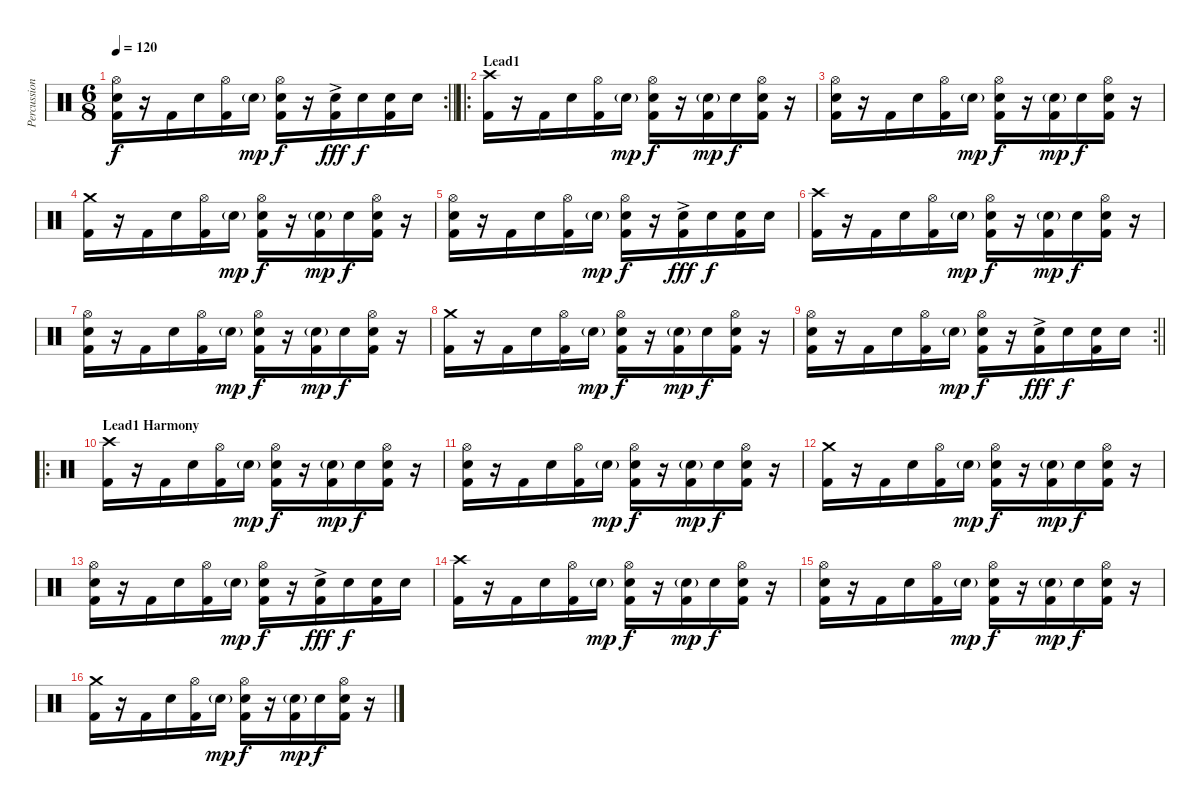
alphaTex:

\track ("Percussion" "Percussion") {instrument percussion}
\staff {score}
\articulation defaults
\rc 2
\ts (6 8)
\tempo 120
\clef neutral
\barLineRight lightlight
\ks c
("Hi-Hat (open)" "Snare (hit) 2" "Kick (hit) 2").16{dy f} r.16 "Kick (hit) 2".16 "Snare (hit) 2".16 ("Hi-Hat (open)" "Kick (hit) 2").16 "Snare (hit) 2"{g}.16{dy mp} ("Hi-Hat (open)" "Snare (hit) 2" "Kick (hit) 2").16{dy f} r.16 ("Snare (hit) 2"{ac} "Kick (hit) 2").16{dy fff} "Snare (hit) 2".16{dy f} ("Snare (hit) 2" "Kick (hit) 2").16 "Snare (hit) 2".16 |
\ro
\section ("" "Lead1")
("Crash high (hit)" "Kick (hit) 2").16 r.16 "Kick (hit) 2".16 "Snare (hit) 2".16 ("Hi-Hat (open)" "Kick (hit) 2").16 "Snare (hit) 2"{g}.16{dy mp} ("Hi-Hat (open)" "Snare (hit) 2" "Kick (hit) 2").16{dy f} r.16 ("Snare (hit) 2"{g} "Kick (hit) 2").16{dy mp} "Snare (hit) 2".16{dy f} ("Hi-Hat (open)" "Snare (hit) 2" "Kick (hit) 2").16 r.16 |
("Hi-Hat (open)" "Snare (hit) 2" "Kick (hit) 2").16 r.16 "Kick (hit) 2".16 "Snare (hit) 2".16 ("Hi-Hat (open)" "Kick (hit) 2").16 "Snare (hit) 2"{g}.16{dy mp} ("Hi-Hat (open)" "Snare (hit) 2" "Kick (hit) 2").16{dy f} r.16 ("Snare (hit) 2"{g} "Kick (hit) 2").16{dy mp} "Snare (hit) 2".16{dy f} ("Hi-Hat (open)" "Snare (hit) 2" "Kick (hit) 2").16 r.16 |
("Crash medium (hit)" "Kick (hit) 2").16 r.16 "Kick (hit) 2".16 "Snare (hit) 2".16 ("Hi-Hat (open)" "Kick (hit) 2").16 "Snare (hit) 2"{g}.16{dy mp} ("Hi-Hat (open)" "Snare (hit) 2" "Kick (hit) 2").16{dy f} r.16 ("Snare (hit) 2"{g} "Kick (hit) 2").16{dy mp} "Snare (hit) 2".16{dy f} ("Hi-Hat (open)" "Snare (hit) 2" "Kick (hit) 2").16 r.16 |
("Hi-Hat (open)" "Snare (hit) 2" "Kick (hit) 2").16 r.16 "Kick (hit) 2".16 "Snare (hit) 2".16 ("Hi-Hat (open)" "Kick (hit) 2").16 "Snare (hit) 2"{g}.16{dy mp} ("Hi-Hat (open)" "Snare (hit) 2" "Kick (hit) 2").16{dy f} r.16 ("Snare (hit) 2"{ac} "Kick (hit) 2").16{dy fff} "Snare (hit) 2".16{dy f} ("Snare (hit) 2" "Kick (hit) 2").16 "Snare (hit) 2".16 |
("Crash high (hit)" "Kick (hit) 2").16 r.16 "Kick (hit) 2".16 "Snare (hit) 2".16 ("Hi-Hat (open)" "Kick (hit) 2").16 "Snare (hit) 2"{g}.16{dy mp} ("Hi-Hat (open)" "Snare (hit) 2" "Kick (hit) 2").16{dy f} r.16 ("Snare (hit) 2"{g} "Kick (hit) 2").16{dy mp} "Snare (hit) 2".16{dy f} ("Hi-Hat (open)" "Snare (hit) 2" "Kick (hit) 2").16 r.16 |
("Hi-Hat (open)" "Snare (hit) 2" "Kick (hit) 2").16 r.16 "Kick (hit) 2".16 "Snare (hit) 2".16 ("Hi-Hat (open)" "Kick (hit) 2").16 "Snare (hit) 2"{g}.16{dy mp} ("Hi-Hat (open)" "Snare (hit) 2" "Kick (hit) 2").16{dy f} r.16 ("Snare (hit) 2"{g} "Kick (hit) 2").16{dy mp} "Snare (hit) 2".16{dy f} ("Hi-Hat (open)" "Snare (hit) 2" "Kick (hit) 2").16 r.16 |
("Crash medium (hit)" "Kick (hit) 2").16 r.16 "Kick (hit) 2".16 "Snare (hit) 2".16 ("Hi-Hat (open)" "Kick (hit) 2").16 "Snare (hit) 2"{g}.16{dy mp} ("Hi-Hat (open)" "Snare (hit) 2" "Kick (hit) 2").16{dy f} r.16 ("Snare (hit) 2"{g} "Kick (hit) 2").16{dy mp} "Snare (hit) 2".16{dy f} ("Hi-Hat (open)" "Snare (hit) 2" "Kick (hit) 2").16 r.16 |
\rc 2
\barLineRight lightlight
("Hi-Hat (open)" "Snare (hit) 2" "Kick (hit) 2").16 r.16 "Kick (hit) 2".16 "Snare (hit) 2".16 ("Hi-Hat (open)" "Kick (hit) 2").16 "Snare (hit) 2"{g}.16{dy mp} ("Hi-Hat (open)" "Snare (hit) 2" "Kick (hit) 2").16{dy f} r.16 ("Snare (hit) 2"{ac} "Kick (hit) 2").16{dy fff} "Snare (hit) 2".16{dy f} ("Snare (hit) 2" "Kick (hit) 2").16 "Snare (hit) 2".16 |
\ro
\section ("" "Lead1 Harmony")
("Crash high (hit)" "Kick (hit) 2").16 r.16 "Kick (hit) 2".16 "Snare (hit) 2".16 ("Hi-Hat (open)" "Kick (hit) 2").16 "Snare (hit) 2"{g}.16{dy mp} ("Hi-Hat (open)" "Snare (hit) 2" "Kick (hit) 2").16{dy f} r.16 ("Snare (hit) 2"{g} "Kick (hit) 2").16{dy mp} "Snare (hit) 2".16{dy f} ("Hi-Hat (open)" "Snare (hit) 2" "Kick (hit) 2").16 r.16 |
("Hi-Hat (open)" "Snare (hit) 2" "Kick (hit) 2").16 r.16 "Kick (hit) 2".16 "Snare (hit) 2".16 ("Hi-Hat (open)" "Kick (hit) 2").16 "Snare (hit) 2"{g}.16{dy mp} ("Hi-Hat (open)" "Snare (hit) 2" "Kick (hit) 2").16{dy f} r.16 ("Snare (hit) 2"{g} "Kick (hit) 2").16{dy mp} "Snare (hit) 2".16{dy f} ("Hi-Hat (open)" "Snare (hit) 2" "Kick (hit) 2").16 r.16 |
("Crash medium (hit)" "Kick (hit) 2").16 r.16 "Kick (hit) 2".16 "Snare (hit) 2".16 ("Hi-Hat (open)" "Kick (hit) 2").16 "Snare (hit) 2"{g}.16{dy mp} ("Hi-Hat (open)" "Snare (hit) 2" "Kick (hit) 2").16{dy f} r.16 ("Snare (hit) 2"{g} "Kick (hit) 2").16{dy mp} "Snare (hit) 2".16{dy f} ("Hi-Hat (open)" "Snare (hit) 2" "Kick (hit) 2").16 r.16 |
("Hi-Hat (open)" "Snare (hit) 2" "Kick (hit) 2").16 r.16 "Kick (hit) 2".16 "Snare (hit) 2".16 ("Hi-Hat (open)" "Kick (hit) 2").16 "Snare (hit) 2"{g}.16{dy mp} ("Hi-Hat (open)" "Snare (hit) 2" "Kick (hit) 2").16{dy f} r.16 ("Snare (hit) 2"{ac} "Kick (hit) 2").16{dy fff} "Snare (hit) 2".16{dy f} ("Snare (hit) 2" "Kick (hit) 2").16 "Snare (hit) 2".16 |
("Crash high (hit)" "Kick (hit) 2").16 r.16 "Kick (hit) 2".16 "Snare (hit) 2".16 ("Hi-Hat (open)" "Kick (hit) 2").16 "Snare (hit) 2"{g}.16{dy mp} ("Hi-Hat (open)" "Snare (hit) 2" "Kick (hit) 2").16{dy f} r.16 ("Snare (hit) 2"{g} "Kick (hit) 2").16{dy mp} "Snare (hit) 2".16{dy f} ("Hi-Hat (open)" "Snare (hit) 2" "Kick (hit) 2").16 r.16 |
("Hi-Hat (open)" "Snare (hit) 2" "Kick (hit) 2").16 r.16 "Kick (hit) 2".16 "Snare (hit) 2".16 ("Hi-Hat (open)" "Kick (hit) 2").16 "Snare (hit) 2"{g}.16{dy mp} ("Hi-Hat (open)" "Snare (hit) 2" "Kick (hit) 2").16{dy f} r.16 ("Snare (hit) 2"{g} "Kick (hit) 2").16{dy mp} "Snare (hit) 2".16{dy f} ("Hi-Hat (open)" "Snare (hit) 2" "Kick (hit) 2").16 r.16 |
("Crash medium (hit)" "Kick (hit) 2").16 r.16 "Kick (hit) 2".16 "Snare (hit) 2".16 ("Hi-Hat (open)" "Kick (hit) 2").16 "Snare (hit) 2"{g}.16{dy mp} ("Hi-Hat (open)" "Snare (hit) 2" "Kick (hit) 2").16{dy f} r.16 ("Snare (hit) 2"{g} "Kick (hit) 2").16{dy mp} "Snare (hit) 2".16{dy f} ("Hi-Hat (open)" "Snare (hit) 2" "Kick (hit) 2").16 r.16
